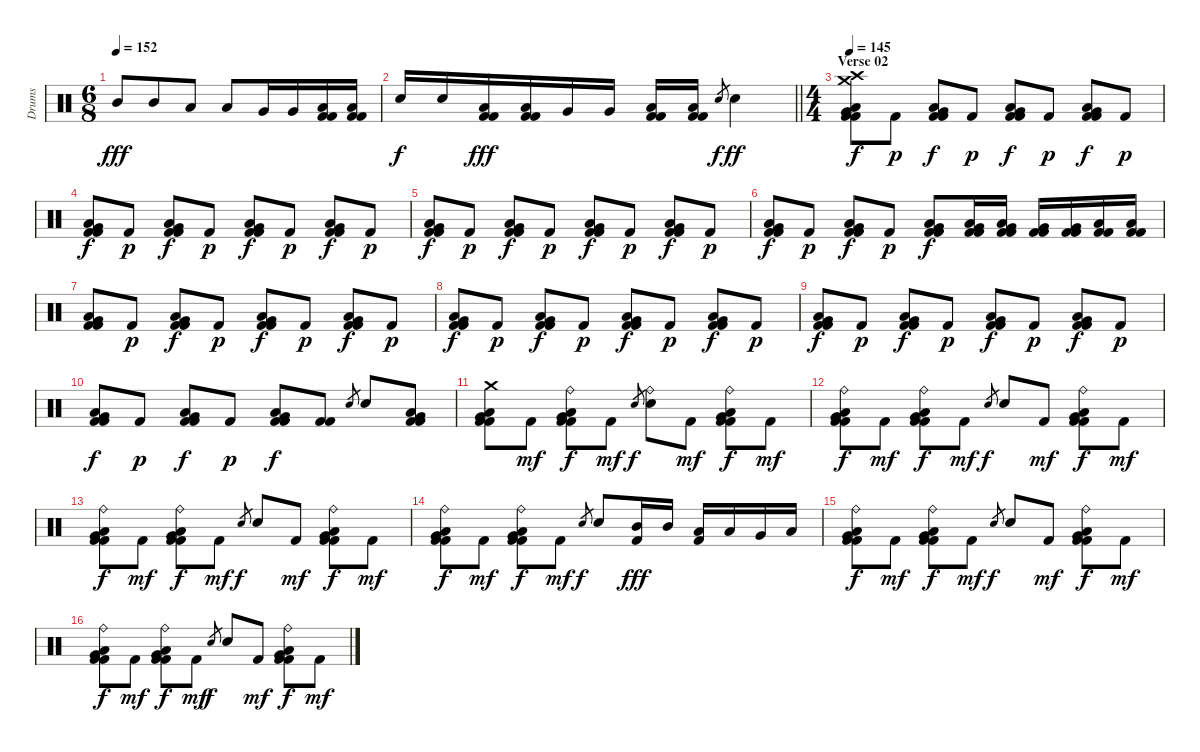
\track ("Drums" "Drums") {instrument percussion}
\staff {score}
\articulation defaults
\ts (6 8)
\tempo 152
\clef neutral
\ks c "Mid Tom (hit)".8{dy fff} "Mid Tom (hit)".8 "Low Tom (hit)".8 "Low Tom (hit)".8 "Very Low Tom (hit)".16 "Very Low Tom (hit)".16
("Low Floor Tom (hit)" "Kick (hit) 2" "Kick (hit) 2").16 ("Low Floor Tom (hit)" "Kick (hit) 2" "Kick (hit) 2").16 |
\barLineRight lightlight "Electric Snare (hit)".16{dy f} "Electric Snare (hit)".16
("Low Tom (hit)" "Kick (hit) 2" "Kick (hit) 2").16{dy fff} ("Low Tom (hit)" "Kick (hit) 2" "Kick (hit) 2").16 "Very Low Tom (hit)".16 "Very Low Tom (hit)".16 ("Low Floor Tom (hit)" "Kick (hit) 2" "Kick (hit) 2").16 ("Low Floor Tom (hit)" "Kick (hit) 2" "Kick (hit) 2").16 "Electric Snare (hit)".8{gr dy f} "Electric Snare (hit)".4{dy ff} |
\ts (4 4)
\section ("" "Verse 02")
\tempo 145
("Crash medium (hit)" "Crash high (hit)" "Very Low Tom (hit)" "Low Floor Tom (hit)" "Kick (hit) 2" "Kick (hit) 2").8{dy f} "Kick (hit) 2".8{dy p} ("Very Low Tom (hit)" "Low Floor Tom (hit)" "Kick (hit) 2" "Kick (hit) 2").8{dy f} "Kick (hit) 2".8{dy p} ("Very Low Tom (hit)" "Low Floor Tom (hit)" "Kick (hit) 2" "Kick (hit) 2").8{dy f} "Kick (hit) 2".8{dy p} ("Very Low Tom (hit)" "Low Floor Tom (hit)" "Kick (hit) 2" "Kick (hit) 2").8{dy f} "Kick (hit) 2".8{dy p} |
("Very Low Tom (hit)" "Low Floor Tom (hit)" "Kick (hit) 2" "Kick (hit) 2").8{dy f} "Kick (hit) 2".8{dy p} ("Very Low Tom (hit)" "Low Floor Tom (hit)" "Kick (hit) 2" "Kick (hit) 2").8{dy f} "Kick (hit) 2".8{dy p} ("Very Low Tom (hit)" "Low Floor Tom (hit)" "Kick (hit) 2" "Kick (hit) 2").8{dy f} "Kick (hit) 2".8{dy p} ("Very Low Tom (hit)" "Low Floor Tom (hit)" "Kick (hit) 2" "Kick (hit) 2").8{dy f} "Kick (hit) 2".8{dy p} |
("Very Low Tom (hit)" "Low Floor Tom (hit)" "Kick (hit) 2" "Kick (hit) 2").8{dy f} "Kick (hit) 2".8{dy p} ("Very Low Tom (hit)" "Low Floor Tom (hit)" "Kick (hit) 2" "Kick (hit) 2").8{dy f} "Kick (hit) 2".8{dy p} ("Very Low Tom (hit)" "Low Floor Tom (hit)" "Kick (hit) 2" "Kick (hit) 2").8{dy f} "Kick (hit) 2".8{dy p} ("Very Low Tom (hit)" "Low Floor Tom (hit)" "Kick (hit) 2" "Kick (hit) 2").8{dy f} "Kick (hit) 2".8{dy p} |
("Very Low Tom (hit)" "Low Floor Tom (hit)" "Kick (hit) 2" "Kick (hit) 2").8{dy f} "Kick (hit) 2".8{dy p} ("Very Low Tom (hit)" "Low Floor Tom (hit)" "Kick (hit) 2" "Kick (hit) 2").8{dy f} "Kick (hit) 2".8{dy p} ("Very Low Tom (hit)" "Low Floor Tom (hit)" "Kick (hit) 2" "Kick (hit) 2").8{dy f} ("Very Low Tom (hit)" "Low Floor Tom (hit)" "Kick (hit) 2" "Kick (hit) 2").16 ("Very Low Tom (hit)" "Low Floor Tom (hit)" "Kick (hit) 2" "Kick (hit) 2").16 ("Very Low Tom (hit)" "Kick (hit) 2" "Kick (hit) 2").16 ("Very Low Tom (hit)" "Kick (hit) 2" "Kick (hit) 2").16 ("Low Floor Tom (hit)" "Kick (hit) 2" "Kick (hit) 2").16 ("Low Floor Tom (hit)" "Kick (hit) 2" "Kick (hit) 2").16 |
("Very Low Tom (hit)" "Low Floor Tom (hit)" "Kick (hit) 2" "Kick (hit) 2").8 "Kick (hit) 2".8{dy p} ("Very Low Tom (hit)" "Low Floor Tom (hit)" "Kick (hit) 2" "Kick (hit) 2").8{dy f} "Kick (hit) 2".8{dy p} ("Very Low Tom (hit)" "Low Floor Tom (hit)" "Kick (hit) 2" "Kick (hit) 2").8{dy f} "Kick (hit) 2".8{dy p} ("Very Low Tom (hit)" "Low Floor Tom (hit)" "Kick (hit) 2" "Kick (hit) 2").8{dy f} "Kick (hit) 2".8{dy p} |
("Very Low Tom (hit)" "Low Floor Tom (hit)" "Kick (hit) 2" "Kick (hit) 2").8{dy f} "Kick (hit) 2".8{dy p} ("Very Low Tom (hit)" "Low Floor Tom (hit)" "Kick (hit) 2" "Kick (hit) 2").8{dy f} "Kick (hit) 2".8{dy p} ("Very Low Tom (hit)" "Low Floor Tom (hit)" "Kick (hit) 2" "Kick (hit) 2").8{dy f} "Kick (hit) 2".8{dy p} ("Very Low Tom (hit)" "Low Floor Tom (hit)" "Kick (hit) 2" "Kick (hit) 2").8{dy f} "Kick (hit) 2".8{dy p} |
("Very Low Tom (hit)" "Low Floor Tom (hit)" "Kick (hit) 2" "Kick (hit) 2").8{dy f} "Kick (hit) 2".8{dy p} ("Very Low Tom (hit)" "Low Floor Tom (hit)" "Kick (hit) 2" "Kick (hit) 2").8{dy f} "Kick (hit) 2".8{dy p} ("Very Low Tom (hit)" "Low Floor Tom (hit)" "Kick (hit) 2" "Kick (hit) 2").8{dy f} "Kick (hit) 2".8{dy p} ("Very Low Tom (hit)" "Low Floor Tom (hit)" "Kick (hit) 2" "Kick (hit) 2").8{dy f} "Kick (hit) 2".8{dy p} |
("Very Low Tom (hit)" "Low Floor Tom (hit)" "Kick (hit) 2" "Kick (hit) 2").8{dy f} "Kick (hit) 2".8{dy p} ("Very Low Tom (hit)" "Low Floor Tom (hit)" "Kick (hit) 2" "Kick (hit) 2").8{dy f} "Kick (hit) 2".8{dy p} ("Very Low Tom (hit)" "Low Floor Tom (hit)" "Kick (hit) 2" "Kick (hit) 2").8{dy f} ("Kick (hit) 2" "Kick (hit) 2").8 "Electric Snare (hit)".8{gr} "Electric Snare (hit)".8 ("Very Low Tom (hit)" "Low Floor Tom (hit)" "Kick (hit) 2" "Kick (hit) 2").8 |
("Crash medium (hit)" "Very Low Tom (hit)" "Low Floor Tom (hit)" "Kick (hit) 2" "Kick (hit) 2").8 "Kick (hit) 2".8{dy mf} ("Ride (bell)" "Very Low Tom (hit)" "Low Floor Tom (hit)" "Kick (hit) 2" "Kick (hit) 2").8{dy f} "Kick (hit) 2".8{dy mf} "Electric Snare (hit)".8{gr dy f} ("Ride (bell)" "Electric Snare (hit)").8 "Kick (hit) 2".8{dy mf} ("Ride (bell)" "Very Low Tom (hit)" "Low Floor Tom (hit)" "Kick (hit) 2" "Kick (hit) 2").8{dy f} "Kick (hit) 2".8{dy mf} |
("Ride (bell)" "Very Low Tom (hit)" "Low Floor Tom (hit)" "Kick (hit) 2" "Kick (hit) 2").8{dy f} "Kick (hit) 2".8{dy mf} ("Ride (bell)" "Very Low Tom (hit)" "Low Floor Tom (hit)" "Kick (hit) 2" "Kick (hit) 2").8{dy f} "Kick (hit) 2".8{dy mf} "Electric Snare (hit)".8{gr dy f} "Electric Snare (hit)".8 "Kick (hit) 2".8{dy mf} ("Ride (bell)" "Very Low Tom (hit)" "Low Floor Tom (hit)" "Kick (hit) 2" "Kick (hit) 2").8{dy f} "Kick (hit) 2".8{dy mf} |
("Ride (bell)" "Very Low Tom (hit)" "Low Floor Tom (hit)" "Kick (hit) 2" "Kick (hit) 2").8{dy f} "Kick (hit) 2".8{dy mf} ("Ride (bell)" "Very Low Tom (hit)" "Low Floor Tom (hit)" "Kick (hit) 2" "Kick (hit) 2").8{dy f} "Kick (hit) 2".8{dy mf} "Electric Snare (hit)".8{gr dy f} "Electric Snare (hit)".8 "Kick (hit) 2".8{dy mf} ("Ride (bell)" "Very Low Tom (hit)" "Low Floor Tom (hit)" "Kick (hit) 2" "Kick (hit) 2").8{dy f} "Kick (hit) 2".8{dy mf} |
("Ride (bell)" "Very Low Tom (hit)" "Low Floor Tom (hit)" "Kick (hit) 2" "Kick (hit) 2").8{dy f} "Kick (hit) 2".8{dy mf} ("Ride (bell)" "Very Low Tom (hit)" "Low Floor Tom (hit)" "Kick (hit) 2" "Kick (hit) 2").8{dy f} "Kick (hit) 2".8{dy mf} "Electric Snare (hit)".8{gr dy f} "Electric Snare (hit)".8 ("Mid Tom (hit)" "Kick (hit) 2").16{dy fff} "Mid Tom (hit)".16 ("Low Tom (hit)" "Kick (hit) 2").16 "Low Tom (hit)".16 "Very Low Tom (hit)".16 "Low Floor Tom (hit)".16 |
("Ride (bell)" "Very Low Tom (hit)" "Low Floor Tom (hit)" "Kick (hit) 2" "Kick (hit) 2").8{dy f} "Kick (hit) 2".8{dy mf} ("Ride (bell)" "Very Low Tom (hit)" "Low Floor Tom (hit)" "Kick (hit) 2" "Kick (hit) 2").8{dy f} "Kick (hit) 2".8{dy mf} "Electric Snare (hit)".8{gr dy f} "Electric Snare (hit)".8 "Kick (hit) 2".8{dy mf} ("Ride (bell)" "Very Low Tom (hit)" "Low Floor Tom (hit)" "Kick (hit) 2" "Kick (hit) 2").8{dy f} "Kick (hit) 2".8{dy mf} |
("Ride (bell)" "Very Low Tom (hit)" "Low Floor Tom (hit)" "Kick (hit) 2" "Kick (hit) 2").8{dy f} "Kick (hit) 2".8{dy mf} ("Ride (bell)" "Very Low Tom (hit)" "Low Floor Tom (hit)" "Kick (hit) 2" "Kick (hit) 2").8{dy f} "Kick (hit) 2".8{dy mf} "Electric Snare (hit)".8{gr dy f} "Electric Snare (hit)".8 "Kick (hit) 2".8{dy mf} ("Ride (bell)" "Very Low Tom (hit)" "Low Floor Tom (hit)" "Kick (hit) 2" "Kick (hit) 2").8{dy f} "Kick (hit) 2".8{dy mf}
